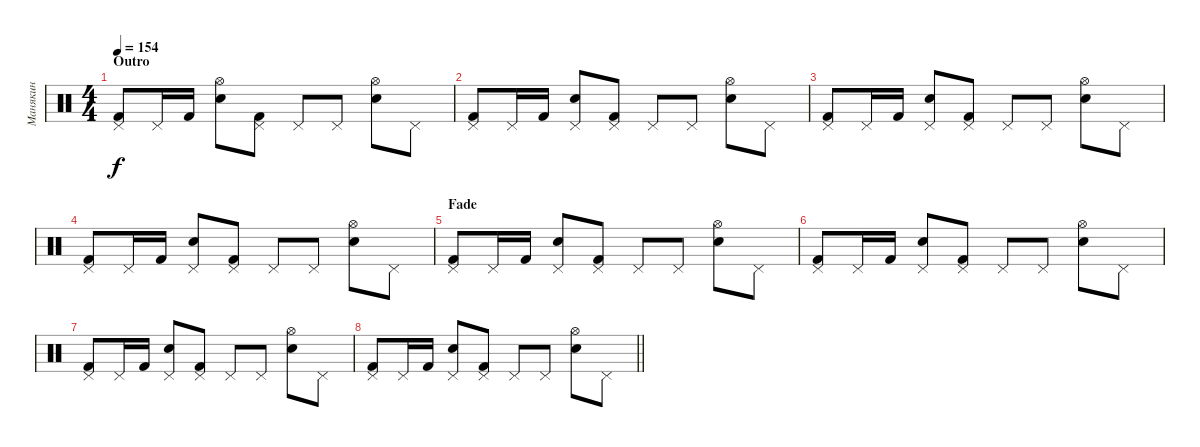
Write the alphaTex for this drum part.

\track ("Манякин" "Манякин") {instrument percussion}
\staff {score}
\articulation defaults
\ts (4 4)
\section ("" "Outro")
\tempo 154
\clef neutral
\ks c
("Pedal Hi-Hat (hit)" "Kick (hit) 2").8{dy f} "Pedal Hi-Hat (hit)".16 "Kick (hit) 2".16 ("Hi-Hat (open)" "Electric Snare (hit)").8 ("Pedal Hi-Hat (hit)" "Kick (hit) 2").8 "Pedal Hi-Hat (hit)".8 "Pedal Hi-Hat (hit)".8 ("Hi-Hat (open)" "Electric Snare (hit)").8 "Pedal Hi-Hat (hit)".8 |
("Pedal Hi-Hat (hit)" "Kick (hit) 2").8 "Pedal Hi-Hat (hit)".16 "Kick (hit) 2".16 ("Pedal Hi-Hat (hit)" "Electric Snare (hit)").8 ("Pedal Hi-Hat (hit)" "Kick (hit) 2").8 "Pedal Hi-Hat (hit)".8 "Pedal Hi-Hat (hit)".8 ("Hi-Hat (open)" "Electric Snare (hit)").8 "Pedal Hi-Hat (hit)".8 |
("Pedal Hi-Hat (hit)" "Kick (hit) 2").8 "Pedal Hi-Hat (hit)".16 "Kick (hit) 2".16 ("Pedal Hi-Hat (hit)" "Electric Snare (hit)").8 ("Pedal Hi-Hat (hit)" "Kick (hit) 2").8 "Pedal Hi-Hat (hit)".8 "Pedal Hi-Hat (hit)".8 ("Hi-Hat (open)" "Electric Snare (hit)").8 "Pedal Hi-Hat (hit)".8 |
("Pedal Hi-Hat (hit)" "Kick (hit) 2").8 "Pedal Hi-Hat (hit)".16 "Kick (hit) 2".16 ("Pedal Hi-Hat (hit)" "Electric Snare (hit)").8 ("Pedal Hi-Hat (hit)" "Kick (hit) 2").8 "Pedal Hi-Hat (hit)".8 "Pedal Hi-Hat (hit)".8 ("Hi-Hat (open)" "Electric Snare (hit)").8 "Pedal Hi-Hat (hit)".8 |
\section ("" "Fade")
("Pedal Hi-Hat (hit)" "Kick (hit) 2").8 "Pedal Hi-Hat (hit)".16 "Kick (hit) 2".16 ("Pedal Hi-Hat (hit)" "Electric Snare (hit)").8 ("Pedal Hi-Hat (hit)" "Kick (hit) 2").8 "Pedal Hi-Hat (hit)".8 "Pedal Hi-Hat (hit)".8 ("Hi-Hat (open)" "Electric Snare (hit)").8 "Pedal Hi-Hat (hit)".8 |
("Pedal Hi-Hat (hit)" "Kick (hit) 2").8 "Pedal Hi-Hat (hit)".16 "Kick (hit) 2".16 ("Pedal Hi-Hat (hit)" "Electric Snare (hit)").8 ("Pedal Hi-Hat (hit)" "Kick (hit) 2").8 "Pedal Hi-Hat (hit)".8 "Pedal Hi-Hat (hit)".8 ("Hi-Hat (open)" "Electric Snare (hit)").8 "Pedal Hi-Hat (hit)".8 |
("Pedal Hi-Hat (hit)" "Kick (hit) 2").8 "Pedal Hi-Hat (hit)".16 "Kick (hit) 2".16 ("Pedal Hi-Hat (hit)" "Electric Snare (hit)").8 ("Pedal Hi-Hat (hit)" "Kick (hit) 2").8 "Pedal Hi-Hat (hit)".8 "Pedal Hi-Hat (hit)".8 ("Hi-Hat (open)" "Electric Snare (hit)").8 "Pedal Hi-Hat (hit)".8 |
\barLineRight lightlight
("Pedal Hi-Hat (hit)" "Kick (hit) 2").8 "Pedal Hi-Hat (hit)".16 "Kick (hit) 2".16 ("Pedal Hi-Hat (hit)" "Electric Snare (hit)").8 ("Pedal Hi-Hat (hit)" "Kick (hit) 2").8 "Pedal Hi-Hat (hit)".8 "Pedal Hi-Hat (hit)".8 ("Hi-Hat (open)" "Electric Snare (hit)").8 "Pedal Hi-Hat (hit)".8
